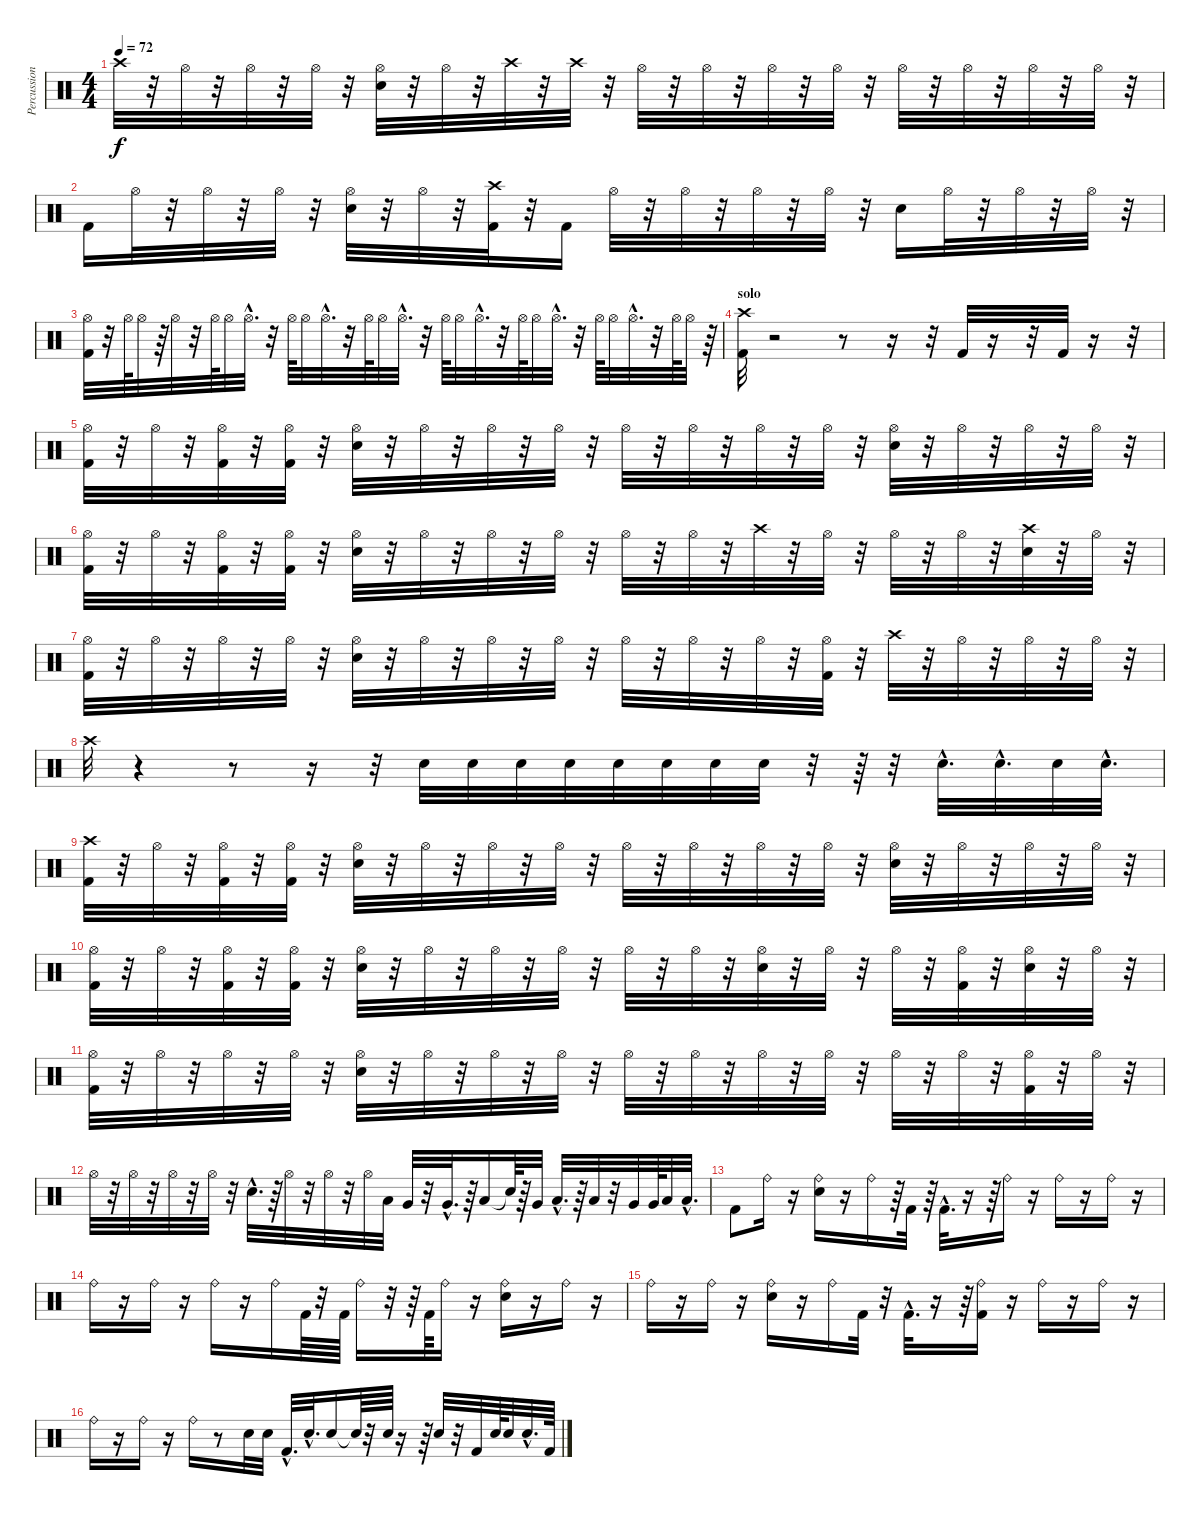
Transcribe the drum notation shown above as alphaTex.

\track ("Percussions" "Percussion") {instrument percussion}
\staff {score}
\articulation defaults
\ts (4 4)
\tempo 72
\clef neutral
\ks c "Crash high (hit)".32{dy f}
r.32 "Hi-Hat (open)".32 r.32 "Hi-Hat (open)".32 r.32 "Hi-Hat (open)".32 r.32 ("Snare (hit) 2" "Hi-Hat (open)").32 r.32 "Hi-Hat (open)".32 r.32 "Crash high (hit)".32 r.32 "Crash high (hit)".32 r.32 "Hi-Hat (open)".32 r.32 "Hi-Hat (open)".32 r.32 "Hi-Hat (open)".32 r.32 "Hi-Hat (open)".32 r.32 "Hi-Hat (open)".32 r.32 "Hi-Hat (open)".32 r.32 "Hi-Hat (open)".32 r.32 "Hi-Hat (open)".32 r.32 |
"Kick (hit) 2".16 "Hi-Hat (open)".32 r.32 "Hi-Hat (open)".32 r.32 "Hi-Hat (open)".32 r.32 ("Snare (hit) 2" "Hi-Hat (open)").32 r.32 "Hi-Hat (open)".32 r.32 ("Crash high (hit)" "Kick (hit) 2").32 r.32 "Kick (hit) 2".16 "Hi-Hat (open)".32 r.32 "Hi-Hat (open)".32 r.32 "Hi-Hat (open)".32 r.32 "Hi-Hat (open)".32 r.32 "Snare (hit) 2".16 "Hi-Hat (open)".32 r.32 "Hi-Hat (open)".32 r.32 "Hi-Hat (open)".32 r.32 |
("Hi-Hat (open)" "Kick (hit) 2").32 r.32 "Hi-Hat (open)".64 "Hi-Hat (open)".32 r.64 "Hi-Hat (open)".32 r.32 "Hi-Hat (open)".64 "Hi-Hat (open)".32 "Hi-Hat (open)"{hac}.32{d} r.32 "Hi-Hat (open)".64 "Hi-Hat (open)".32 "Hi-Hat (open)"{hac}.32{d} r.32 "Hi-Hat (open)".64 "Hi-Hat (open)".32 "Hi-Hat (open)"{hac}.32{d} r.32 "Hi-Hat (open)".64 "Hi-Hat (open)".32 "Hi-Hat (open)"{hac}.32{d} r.32 "Hi-Hat (open)".64 "Hi-Hat (open)".32 "Hi-Hat (open)"{hac}.32{d} r.32 "Hi-Hat (open)".64 "Hi-Hat (open)".32 "Hi-Hat (open)"{hac}.32{d} r.32 "Hi-Hat (open)".64 "Hi-Hat (open)".32 r.64 |
\section ("" "solo")
("Crash high (hit)" "Kick (hit) 2").32 r.2 r.8 r.16 r.32 "Kick (hit) 2".32 r.16 r.32 "Kick (hit) 2".32 r.16 r.32 |
("Hi-Hat (open)" "Kick (hit) 2").32 r.32 "Hi-Hat (open)".32 r.32 ("Hi-Hat (open)" "Kick (hit) 2").32 r.32 ("Hi-Hat (open)" "Kick (hit) 2").32 r.32 ("Snare (hit) 2" "Hi-Hat (open)").32 r.32 "Hi-Hat (open)".32 r.32 "Hi-Hat (open)".32 r.32 "Hi-Hat (open)".32 r.32 "Hi-Hat (open)".32 r.32 "Hi-Hat (open)".32 r.32 "Hi-Hat (open)".32 r.32 "Hi-Hat (open)".32 r.32 ("Snare (hit) 2" "Hi-Hat (open)").32 r.32 "Hi-Hat (open)".32 r.32 "Hi-Hat (open)".32 r.32 "Hi-Hat (open)".32 r.32 |
("Hi-Hat (open)" "Kick (hit) 2").32 r.32 "Hi-Hat (open)".32 r.32 ("Hi-Hat (open)" "Kick (hit) 2").32 r.32 ("Hi-Hat (open)" "Kick (hit) 2").32 r.32 ("Snare (hit) 2" "Hi-Hat (open)").32 r.32 "Hi-Hat (open)".32 r.32 "Hi-Hat (open)".32 r.32 "Hi-Hat (open)".32 r.32 "Hi-Hat (open)".32 r.32 "Hi-Hat (open)".32 r.32 "Crash high (hit)".32 r.32 "Hi-Hat (open)".32 r.32 "Hi-Hat (open)".32 r.32 "Hi-Hat (open)".32 r.32 ("Snare (hit) 2" "Crash high (hit)").32 r.32 "Hi-Hat (open)".32 r.32 |
("Hi-Hat (open)" "Kick (hit) 2").32 r.32 "Hi-Hat (open)".32 r.32 "Hi-Hat (open)".32 r.32 "Hi-Hat (open)".32 r.32 ("Snare (hit) 2" "Hi-Hat (open)").32 r.32 "Hi-Hat (open)".32 r.32 "Hi-Hat (open)".32 r.32 "Hi-Hat (open)".32 r.32 "Hi-Hat (open)".32 r.32 "Hi-Hat (open)".32 r.32 "Hi-Hat (open)".32 r.32 ("Hi-Hat (open)" "Kick (hit) 2").32 r.32 "Crash high (hit)".32 r.32 "Hi-Hat (open)".32 r.32 "Hi-Hat (open)".32 r.32 "Hi-Hat (open)".32 r.32 |
"Crash high (hit)".32 r.4 r.8 r.16 r.32 "Snare (hit) 2".32 "Snare (hit) 2".32 "Snare (hit) 2".32 "Snare (hit) 2".32 "Snare (hit) 2".32 "Snare (hit) 2".32 "Snare (hit) 2".32 "Snare (hit) 2".32 r.32 r.64 r.32 "Snare (hit) 2"{hac}.32{d} "Snare (hit) 2"{hac}.32{d} "Snare (hit) 2".32 "Snare (hit) 2"{hac}.32{d} |
("Crash high (hit)" "Kick (hit) 2").32 r.32 "Hi-Hat (open)".32 r.32 ("Hi-Hat (open)" "Kick (hit) 2").32 r.32 ("Hi-Hat (open)" "Kick (hit) 2").32 r.32 ("Snare (hit) 2" "Hi-Hat (open)").32 r.32 "Hi-Hat (open)".32 r.32 "Hi-Hat (open)".32 r.32 "Hi-Hat (open)".32 r.32 "Hi-Hat (open)".32 r.32 "Hi-Hat (open)".32 r.32 "Hi-Hat (open)".32 r.32 "Hi-Hat (open)".32 r.32 ("Snare (hit) 2" "Hi-Hat (open)").32 r.32 "Hi-Hat (open)".32 r.32 "Hi-Hat (open)".32 r.32 "Hi-Hat (open)".32 r.32 |
("Hi-Hat (open)" "Kick (hit) 2").32 r.32 "Hi-Hat (open)".32 r.32 ("Hi-Hat (open)" "Kick (hit) 2").32 r.32 ("Hi-Hat (open)" "Kick (hit) 2").32 r.32 ("Snare (hit) 2" "Hi-Hat (open)").32 r.32 "Hi-Hat (open)".32 r.32 "Hi-Hat (open)".32 r.32 "Hi-Hat (open)".32 r.32 "Hi-Hat (open)".32 r.32 "Hi-Hat (open)".32 r.32 ("Snare (hit) 2" "Hi-Hat (open)").32 r.32 "Hi-Hat (open)".32 r.32 "Hi-Hat (open)".32 r.32 ("Hi-Hat (open)" "Kick (hit) 2").32 r.32 ("Snare (hit) 2" "Hi-Hat (open)").32 r.32 "Hi-Hat (open)".32 r.32 |
("Hi-Hat (open)" "Kick (hit) 2").32 r.32 "Hi-Hat (open)".32 r.32 "Hi-Hat (open)".32 r.32 "Hi-Hat (open)".32 r.32 ("Snare (hit) 2" "Hi-Hat (open)").32 r.32 "Hi-Hat (open)".32 r.32 "Hi-Hat (open)".32 r.32 "Hi-Hat (open)".32 r.32 "Hi-Hat (open)".32 r.32 "Hi-Hat (open)".32 r.32 "Hi-Hat (open)".32 r.32 "Hi-Hat (open)".32 r.32 "Hi-Hat (open)".32 r.32 "Hi-Hat (open)".32 r.32 ("Hi-Hat (open)" "Kick (hit) 2").32 r.32 "Hi-Hat (open)".32 r.32 |
"Hi-Hat (open)".32 r.32 "Hi-Hat (open)".32 r.32 "Hi-Hat (open)".32 r.32 "Hi-Hat (open)".32 r.32 "Snare (hit) 2"{hac}.32{d} r.64 "Hi-Hat (open)".32 r.32 "Hi-Hat (open)".32 r.32 "Hi-Hat (open)".32 "Low Floor Tom (hit)".32 "Very Low Tom (hit)".32 r.32 "Very Low Tom (hit)"{hac}.32{d} r.64 "Low Floor Tom (hit)".16 "Snare (hit)"{t}.64 r.64 "Very Low Tom (hit)".32 "Low Tom (hit)"{hac}.32{d} r.64 "Low Tom (hit)".32 r.32 "Very Low Tom (hit)".32 "Very Low Tom (hit)".64 "Low Floor Tom (hit)".32 "Low Floor Tom (hit)"{hac}.32{d} |
"Kick (hit) 2".8 "Ride (bell)".16 r.16 ("Snare (hit) 2" "Ride (bell)").16 r.16 "Ride (bell)".16 r.64 "Kick (hit) 2".32 r.64 "Kick (hit) 2"{hac}.32{d} r.16 r.64 "Ride (bell)".16 r.16 "Ride (bell)".16 r.16 "Ride (bell)".16 r.16 |
"Ride (bell)".16 r.16 "Ride (bell)".16 r.16 "Ride (bell)".16 r.16 "Ride (bell)".16 "Kick (hit) 2".64 r.32 "Kick (hit) 2".64 "Ride (bell)".16 r.32 r.64 "Kick (hit) 2".64 "Ride (bell)".16 r.16 ("Snare (hit) 2" "Ride (bell)").16 r.16 "Ride (bell)".16 r.16 |
"Ride (bell)".16 r.16 "Ride (bell)".16 r.16 ("Snare (hit) 2" "Ride (bell)").16 r.16 "Ride (bell)".16 "Kick (hit) 2".32 r.32 "Kick (hit) 2"{hac}.32{d} r.16 r.64 ("Ride (bell)" "Kick (hit) 2").16 r.16 "Ride (bell)".16 r.16 "Ride (bell)".16 r.16 |
"Ride (bell)".16 r.16 "Ride (bell)".16 r.16 "Ride (bell)".16 r.8 "Snare (hit) 2".32 "Snare (hit) 2".32 "Kick (hit) 2"{hac}.32{d} "Snare (hit) 2"{hac}.32{d} "Snare (hit) 2".16 "Snare (hit)"{t}.64 r.32 "Snare (hit) 2".64 r.16 r.64 "Snare (hit) 2".32 r.32 "Kick (hit) 2".32 "Snare (hit) 2".64 "Snare (hit) 2".32 "Snare (hit) 2"{hac}.32{d} "Kick (hit) 2".64
